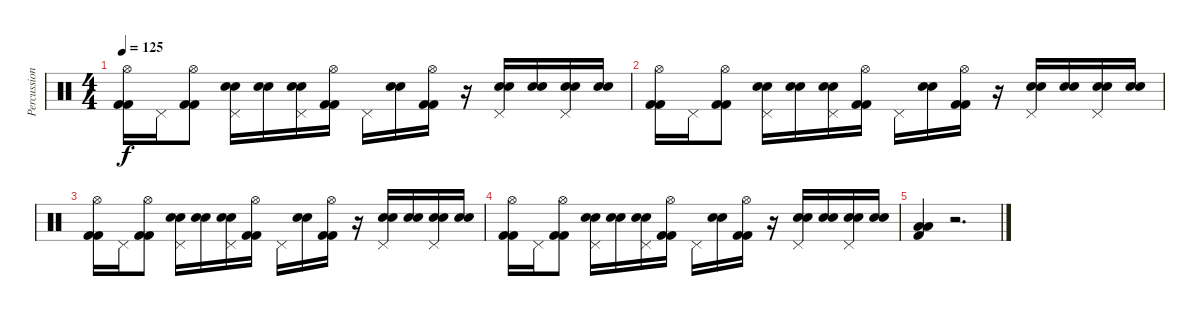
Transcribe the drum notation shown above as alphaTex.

\track ("Percussion2" "Percussion") {instrument percussion}
\staff {score}
\articulation defaults
\ts (4 4)
\tempo 125
\clef neutral
\ks c
("Hi-Hat (open)" "Kick (hit) 2" "Kick (hit) 2").16{dy f} "Pedal Hi-Hat (hit)".16 ("Hi-Hat (open)" "Kick (hit) 2" "Kick (hit) 2").8 ("Pedal Hi-Hat (hit)" "Electric Snare (hit)" "Electric Snare (hit)").16 ("Electric Snare (hit)" "Electric Snare (hit)").16 ("Pedal Hi-Hat (hit)" "Electric Snare (hit)" "Electric Snare (hit)").16 ("Hi-Hat (open)" "Kick (hit) 2" "Kick (hit) 2").16 "Pedal Hi-Hat (hit)".16 ("Electric Snare (hit)" "Electric Snare (hit)").16 ("Hi-Hat (open)" "Kick (hit) 2" "Kick (hit) 2").16 r.16 ("Pedal Hi-Hat (hit)" "Electric Snare (hit)" "Electric Snare (hit)").16 ("Electric Snare (hit)" "Electric Snare (hit)").16 ("Pedal Hi-Hat (hit)" "Electric Snare (hit)" "Electric Snare (hit)").16 ("Electric Snare (hit)" "Electric Snare (hit)").16 |
("Hi-Hat (open)" "Kick (hit) 2" "Kick (hit) 2").16 "Pedal Hi-Hat (hit)".16 ("Hi-Hat (open)" "Kick (hit) 2" "Kick (hit) 2").8 ("Pedal Hi-Hat (hit)" "Electric Snare (hit)" "Electric Snare (hit)").16 ("Electric Snare (hit)" "Electric Snare (hit)").16 ("Pedal Hi-Hat (hit)" "Electric Snare (hit)" "Electric Snare (hit)").16 ("Hi-Hat (open)" "Kick (hit) 2" "Kick (hit) 2").16 "Pedal Hi-Hat (hit)".16 ("Electric Snare (hit)" "Electric Snare (hit)").16 ("Hi-Hat (open)" "Kick (hit) 2" "Kick (hit) 2").16 r.16 ("Pedal Hi-Hat (hit)" "Electric Snare (hit)" "Electric Snare (hit)").16 ("Electric Snare (hit)" "Electric Snare (hit)").16 ("Pedal Hi-Hat (hit)" "Electric Snare (hit)" "Electric Snare (hit)").16 ("Electric Snare (hit)" "Electric Snare (hit)").16 |
("Hi-Hat (open)" "Kick (hit) 2" "Kick (hit) 2").16 "Pedal Hi-Hat (hit)".16 ("Hi-Hat (open)" "Kick (hit) 2" "Kick (hit) 2").8 ("Pedal Hi-Hat (hit)" "Electric Snare (hit)" "Electric Snare (hit)").16 ("Electric Snare (hit)" "Electric Snare (hit)").16 ("Pedal Hi-Hat (hit)" "Electric Snare (hit)" "Electric Snare (hit)").16 ("Hi-Hat (open)" "Kick (hit) 2" "Kick (hit) 2").16 "Pedal Hi-Hat (hit)".16 ("Electric Snare (hit)" "Electric Snare (hit)").16 ("Hi-Hat (open)" "Kick (hit) 2" "Kick (hit) 2").16 r.16 ("Pedal Hi-Hat (hit)" "Electric Snare (hit)" "Electric Snare (hit)").16 ("Electric Snare (hit)" "Electric Snare (hit)").16 ("Pedal Hi-Hat (hit)" "Electric Snare (hit)" "Electric Snare (hit)").16 ("Electric Snare (hit)" "Electric Snare (hit)").16 |
("Hi-Hat (open)" "Kick (hit) 2" "Kick (hit) 2").16 "Pedal Hi-Hat (hit)".16 ("Hi-Hat (open)" "Kick (hit) 2" "Kick (hit) 2").8 ("Pedal Hi-Hat (hit)" "Electric Snare (hit)" "Electric Snare (hit)").16 ("Electric Snare (hit)" "Electric Snare (hit)").16 ("Pedal Hi-Hat (hit)" "Electric Snare (hit)" "Electric Snare (hit)").16 ("Hi-Hat (open)" "Kick (hit) 2" "Kick (hit) 2").16 "Pedal Hi-Hat (hit)".16 ("Electric Snare (hit)" "Electric Snare (hit)").16 ("Hi-Hat (open)" "Kick (hit) 2" "Kick (hit) 2").16 r.16 ("Pedal Hi-Hat (hit)" "Electric Snare (hit)" "Electric Snare (hit)").16 ("Electric Snare (hit)" "Electric Snare (hit)").16 ("Pedal Hi-Hat (hit)" "Electric Snare (hit)" "Electric Snare (hit)").16 ("Electric Snare (hit)" "Electric Snare (hit)").16 |
("Low Floor Tom (hit)" "Low Floor Tom (hit)" "Kick (hit) 2").4 r.2{d}
